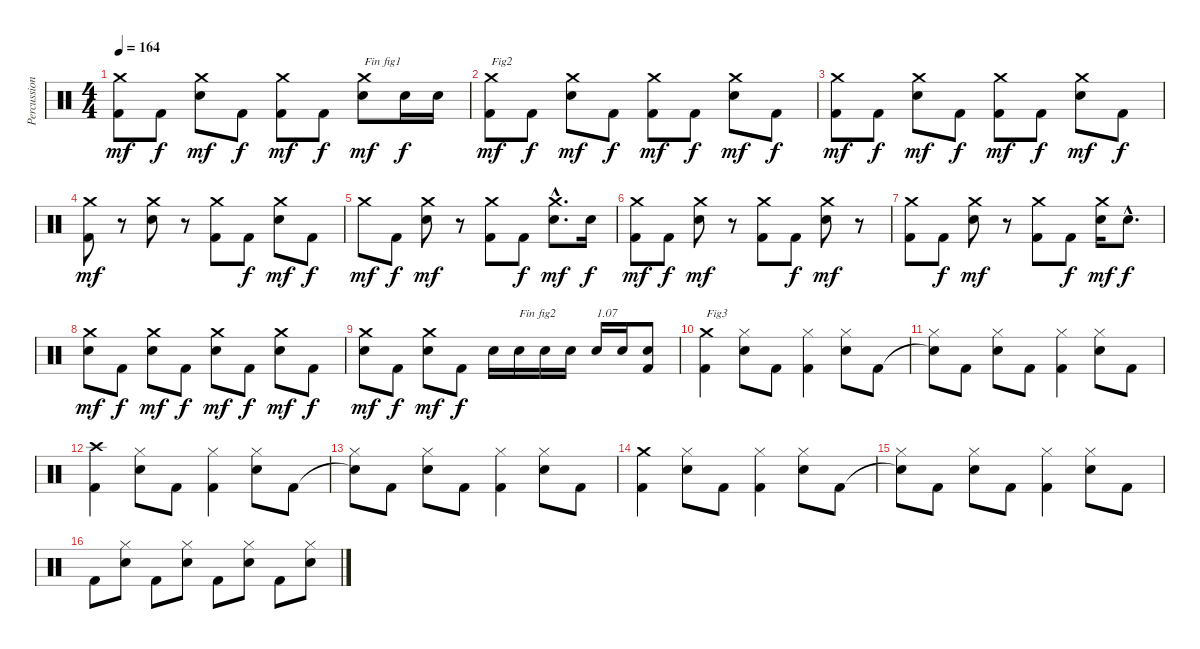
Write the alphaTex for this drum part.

\track ("Percussions" "Percussion") {instrument percussion}
\staff {score}
\articulation defaults
\ts (4 4)
\tempo 164
\clef neutral
\ks c
("Kick (hit) 2" "Crash medium (hit)").8{dy mf} "Kick (hit) 2".8{dy f} ("Electric Snare (hit)" "Crash medium (hit)").8{dy mf} "Kick (hit) 2".8{dy f} ("Kick (hit) 2" "Crash medium (hit)").8{dy mf} "Kick (hit) 2".8{dy f} ("Electric Snare (hit)" "Crash medium (hit)").8{txt "Fin fig1" dy mf} "Electric Snare (hit)".16{dy f} "Electric Snare (hit)".16 |
("Kick (hit) 2" "Crash medium (hit)").8{txt "Fig2" dy mf} "Kick (hit) 2".8{dy f} ("Electric Snare (hit)" "Crash medium (hit)").8{dy mf} "Kick (hit) 2".8{dy f} ("Kick (hit) 2" "Crash medium (hit)").8{dy mf} "Kick (hit) 2".8{dy f} ("Electric Snare (hit)" "Crash medium (hit)").8{dy mf} "Kick (hit) 2".8{dy f} |
("Kick (hit) 2" "Crash medium (hit)").8{dy mf} "Kick (hit) 2".8{dy f} ("Electric Snare (hit)" "Crash medium (hit)").8{dy mf} "Kick (hit) 2".8{dy f} ("Kick (hit) 2" "Crash medium (hit)").8{dy mf} "Kick (hit) 2".8{dy f} ("Electric Snare (hit)" "Crash medium (hit)").8{dy mf} "Kick (hit) 2".8{dy f} |
("Kick (hit) 2" "Crash medium (hit)").8{dy mf} r.8 ("Electric Snare (hit)" "Crash medium (hit)").8 r.8 ("Kick (hit) 2" "Crash medium (hit)").8 "Kick (hit) 2".8{dy f} ("Electric Snare (hit)" "Crash medium (hit)").8{dy mf} "Kick (hit) 2".8{dy f} |
"Crash medium (hit)".8{dy mf} "Kick (hit) 2".8{dy f} ("Electric Snare (hit)" "Crash medium (hit)").8{dy mf} r.8 ("Kick (hit) 2" "Crash medium (hit)").8 "Kick (hit) 2".8{dy f} ("Electric Snare (hit)"{hac} "Crash medium (hit)"{hac}).8{d dy mf} "Electric Snare (hit)".16{dy f} |
("Kick (hit) 2" "Crash medium (hit)").8{dy mf} "Kick (hit) 2".8{dy f} ("Electric Snare (hit)" "Crash medium (hit)").8{dy mf} r.8 ("Kick (hit) 2" "Crash medium (hit)").8 "Kick (hit) 2".8{dy f} ("Electric Snare (hit)" "Crash medium (hit)").8{dy mf} r.8 |
("Kick (hit) 2" "Crash medium (hit)").8 "Kick (hit) 2".8{dy f} ("Electric Snare (hit)" "Crash medium (hit)").8{dy mf} r.8 ("Kick (hit) 2" "Crash medium (hit)").8 "Kick (hit) 2".8{dy f} ("Electric Snare (hit)" "Crash medium (hit)").16{dy mf} "Electric Snare (hit)"{hac}.8{d dy f} |
("Electric Snare (hit)" "Crash medium (hit)").8{dy mf} "Kick (hit) 2".8{dy f} ("Electric Snare (hit)" "Crash medium (hit)").8{dy mf} "Kick (hit) 2".8{dy f} ("Electric Snare (hit)" "Crash medium (hit)").8{dy mf} "Kick (hit) 2".8{dy f} ("Electric Snare (hit)" "Crash medium (hit)").8{dy mf} "Kick (hit) 2".8{dy f} |
("Electric Snare (hit)" "Crash medium (hit)").8{dy mf} "Kick (hit) 2".8{dy f} ("Electric Snare (hit)" "Crash medium (hit)").8{dy mf} "Kick (hit) 2".8{dy f} "Electric Snare (hit)".16 "Electric Snare (hit)".16{txt "Fin fig2"} "Electric Snare (hit)".16 "Electric Snare (hit)".16 "Electric Snare (hit)".16{txt "1.07"} "Electric Snare (hit)".16 ("Kick (hit) 2" "Electric Snare (hit)").8 |
("Kick (hit) 2" "Crash medium (hit)").4{txt "Fig3"} ("Electric Snare (hit)" "Hi-Hat (closed)").8 "Kick (hit) 2".8 ("Kick (hit) 2" "Hi-Hat (closed)").4 ("Electric Snare (hit)" "Hi-Hat (closed)").8 "Kick (hit) 2".8 |
("Snare (hit)"{t} "Hi-Hat (closed)").8 "Kick (hit) 2".8 ("Electric Snare (hit)" "Hi-Hat (closed)").8 "Kick (hit) 2".8 ("Kick (hit) 2" "Hi-Hat (closed)").4 ("Electric Snare (hit)" "Hi-Hat (closed)").8 "Kick (hit) 2".8 |
("Kick (hit) 2" "Crash high (hit)").4 ("Electric Snare (hit)" "Hi-Hat (closed)").8 "Kick (hit) 2".8 ("Kick (hit) 2" "Hi-Hat (closed)").4 ("Electric Snare (hit)" "Hi-Hat (closed)").8 "Kick (hit) 2".8 |
("Snare (hit)"{t} "Hi-Hat (closed)").8 "Kick (hit) 2".8 ("Electric Snare (hit)" "Hi-Hat (closed)").8 "Kick (hit) 2".8 ("Kick (hit) 2" "Hi-Hat (closed)").4 ("Electric Snare (hit)" "Hi-Hat (closed)").8 "Kick (hit) 2".8 |
("Kick (hit) 2" "Crash medium (hit)").4 ("Electric Snare (hit)" "Hi-Hat (closed)").8 "Kick (hit) 2".8 ("Kick (hit) 2" "Hi-Hat (closed)").4 ("Electric Snare (hit)" "Hi-Hat (closed)").8 "Kick (hit) 2".8 |
("Snare (hit)"{t} "Hi-Hat (closed)").8 "Kick (hit) 2".8 ("Electric Snare (hit)" "Hi-Hat (closed)").8 "Kick (hit) 2".8 ("Kick (hit) 2" "Hi-Hat (closed)").4 ("Electric Snare (hit)" "Hi-Hat (closed)").8 "Kick (hit) 2".8 |
"Kick (hit) 2".8 ("Electric Snare (hit)" "Hi-Hat (closed)").8 "Kick (hit) 2".8 ("Electric Snare (hit)" "Hi-Hat (closed)").8 "Kick (hit) 2".8 ("Electric Snare (hit)" "Hi-Hat (closed)").8 "Kick (hit) 2".8 ("Electric Snare (hit)" "Hi-Hat (closed)").8
